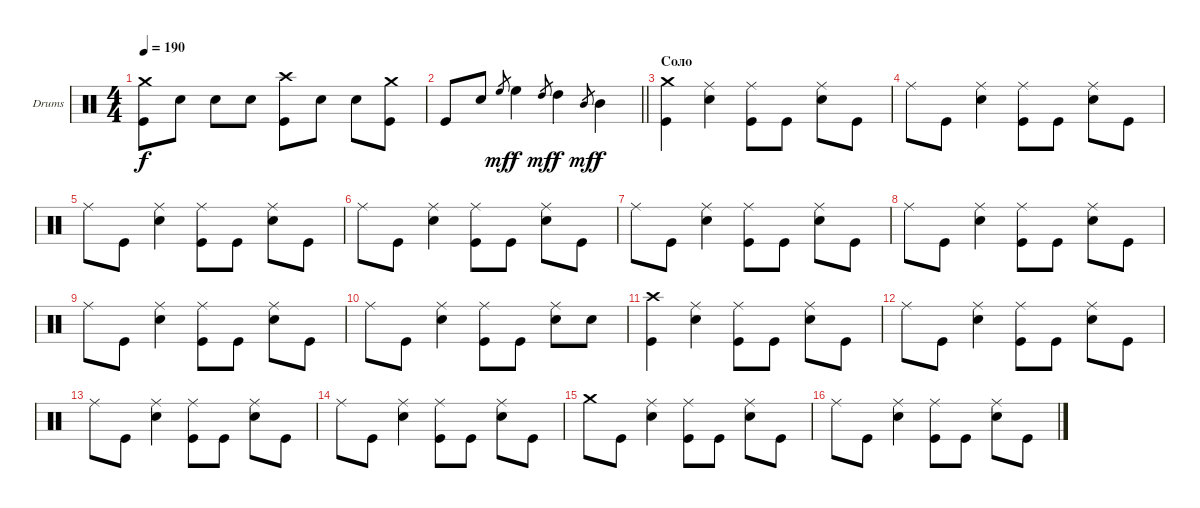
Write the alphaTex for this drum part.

\bracketExtendMode groupsimilarinstruments
\firstSystemTrackNameOrientation horizontal
\otherSystemsTrackNameOrientation horizontal
\track ("Максим Удалов" "Drums") {instrument percussion}
\staff {score}
\articulation defaults
\ts (4 4)
\tempo 190
\clef neutral
\ks c
("Kick (hit)" "Crash medium (hit)").8{dy f} "Snare (hit) 2".8 "Snare (hit) 2".8 "Snare (hit) 2".8 ("Kick (hit)" "Crash high (hit)").8 "Snare (hit) 2".8 "Snare (hit) 2".8 ("Kick (hit)" "Crash medium (hit)").8 |
\barLineRight lightlight "Kick (hit)".8 "Snare (hit) 2".8 "High Floor Tom (hit)".8{gr dy mf} "High Floor Tom (hit)".4{dy f} "High Tom (hit)".8{gr dy mf} "High Tom (hit)".4{dy f} "Mid Tom (hit)".8{gr dy mf} "Mid Tom (hit)".4{dy f}
|
\section ("" "Соло")
("Kick (hit)" "Crash medium (hit)").4 ("Snare (hit) 2" "Ride (middle)").4 ("Kick (hit)" "Ride (middle)").8 "Kick (hit)".8 ("Snare (hit) 2" "Ride (middle)").8 "Kick (hit)".8 |
"Ride (middle)".8 "Kick (hit)".8 ("Snare (hit) 2" "Ride (middle)").4 ("Kick (hit)" "Ride (middle)").8 "Kick (hit)".8 ("Snare (hit) 2" "Ride (middle)").8 "Kick (hit)".8 |
"Ride (middle)".8 "Kick (hit)".8 ("Snare (hit) 2" "Ride (middle)").4 ("Kick (hit)" "Ride (middle)").8 "Kick (hit)".8 ("Snare (hit) 2" "Ride (middle)").8 "Kick (hit)".8 |
"Ride (middle)".8 "Kick (hit)".8 ("Snare (hit) 2" "Ride (middle)").4 ("Kick (hit)" "Ride (middle)").8 "Kick (hit)".8 ("Snare (hit) 2" "Ride (middle)").8 "Kick (hit)".8 |
"Ride (middle)".8 "Kick (hit)".8 ("Snare (hit) 2" "Ride (middle)").4 ("Kick (hit)" "Ride (middle)").8 "Kick (hit)".8 ("Snare (hit) 2" "Ride (middle)").8 "Kick (hit)".8 |
"Ride (middle)".8 "Kick (hit)".8 ("Snare (hit) 2" "Ride (middle)").4 ("Kick (hit)" "Ride (middle)").8 "Kick (hit)".8 ("Snare (hit) 2" "Ride (middle)").8 "Kick (hit)".8 |
"Ride (middle)".8 "Kick (hit)".8 ("Snare (hit) 2" "Ride (middle)").4 ("Kick (hit)" "Ride (middle)").8 "Kick (hit)".8 ("Snare (hit) 2" "Ride (middle)").8 "Kick (hit)".8 |
"Ride (middle)".8 "Kick (hit)".8 ("Snare (hit) 2" "Ride (middle)").4 ("Kick (hit)" "Ride (middle)").8 "Kick (hit)".8 ("Snare (hit) 2" "Ride (middle)").8 "Snare (hit) 2".8 |
("Kick (hit)" "Crash high (hit)").4 ("Snare (hit) 2" "Ride (middle)").4 ("Kick (hit)" "Ride (middle)").8 "Kick (hit)".8 ("Snare (hit) 2" "Ride (middle)").8 "Kick (hit)".8 |
"Ride (middle)".8 "Kick (hit)".8 ("Snare (hit) 2" "Ride (middle)").4 ("Kick (hit)" "Ride (middle)").8 "Kick (hit)".8 ("Snare (hit) 2" "Ride (middle)").8 "Kick (hit)".8 |
"Ride (middle)".8 "Kick (hit)".8 ("Snare (hit) 2" "Ride (middle)").4 ("Kick (hit)" "Ride (middle)").8 "Kick (hit)".8 ("Snare (hit) 2" "Ride (middle)").8 "Kick (hit)".8 |
"Ride (middle)".8 "Kick (hit)".8 ("Snare (hit) 2" "Ride (middle)").4 ("Kick (hit)" "Ride (middle)").8 "Kick (hit)".8 ("Snare (hit) 2" "Ride (middle)").8 "Kick (hit)".8 |
"Crash medium (hit)".8 "Kick (hit)".8 ("Snare (hit) 2" "Ride (middle)").4 ("Kick (hit)" "Ride (middle)").8 "Kick (hit)".8 ("Snare (hit) 2" "Ride (middle)").8 "Kick (hit)".8 |
"Ride (middle)".8 "Kick (hit)".8 ("Snare (hit) 2" "Ride (middle)").4 ("Kick (hit)" "Ride (middle)").8 "Kick (hit)".8 ("Snare (hit) 2" "Ride (middle)").8 "Kick (hit)".8
